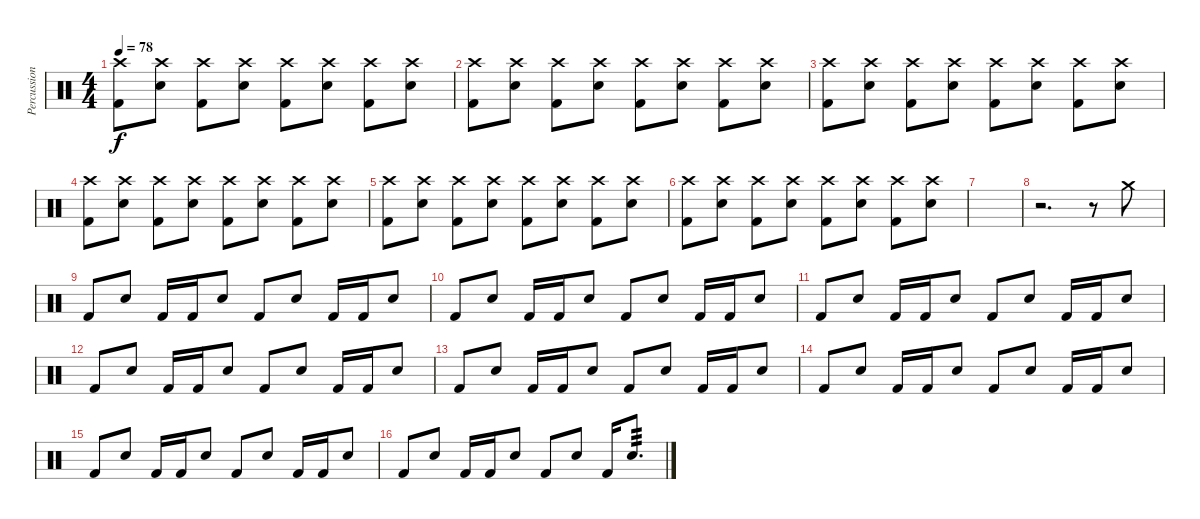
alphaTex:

\track ("Percussioni" "Percussion") {instrument percussion}
\staff {score}
\articulation defaults
\ts (4 4)
\tempo 78
\clef neutral
\ks c
("Crash high (hit)" "Kick (hit) 2").8{dy f} ("Crash high (hit)" "Snare (hit) 2").8 ("Crash high (hit)" "Kick (hit) 2").8 ("Crash high (hit)" "Snare (hit) 2").8 ("Crash high (hit)" "Kick (hit) 2").8 ("Crash high (hit)" "Snare (hit) 2").8 ("Crash high (hit)" "Kick (hit) 2").8 ("Crash high (hit)" "Snare (hit) 2").8 |
("Crash high (hit)" "Kick (hit) 2").8 ("Crash high (hit)" "Snare (hit) 2").8 ("Crash high (hit)" "Kick (hit) 2").8 ("Crash high (hit)" "Snare (hit) 2").8 ("Crash high (hit)" "Kick (hit) 2").8 ("Crash high (hit)" "Snare (hit) 2").8 ("Crash high (hit)" "Kick (hit) 2").8 ("Crash high (hit)" "Snare (hit) 2").8 |
("Crash high (hit)" "Kick (hit) 2").8 ("Crash high (hit)" "Snare (hit) 2").8 ("Crash high (hit)" "Kick (hit) 2").8 ("Crash high (hit)" "Snare (hit) 2").8 ("Crash high (hit)" "Kick (hit) 2").8 ("Crash high (hit)" "Snare (hit) 2").8 ("Crash high (hit)" "Kick (hit) 2").8 ("Crash high (hit)" "Snare (hit) 2").8 |
("Crash high (hit)" "Kick (hit) 2").8 ("Crash high (hit)" "Snare (hit) 2").8 ("Crash high (hit)" "Kick (hit) 2").8 ("Crash high (hit)" "Snare (hit) 2").8 ("Crash high (hit)" "Kick (hit) 2").8 ("Crash high (hit)" "Snare (hit) 2").8 ("Crash high (hit)" "Kick (hit) 2").8 ("Crash high (hit)" "Snare (hit) 2").8 |
("Crash high (hit)" "Kick (hit) 2").8 ("Crash high (hit)" "Snare (hit) 2").8 ("Crash high (hit)" "Kick (hit) 2").8 ("Crash high (hit)" "Snare (hit) 2").8 ("Crash high (hit)" "Kick (hit) 2").8 ("Crash high (hit)" "Snare (hit) 2").8 ("Crash high (hit)" "Kick (hit) 2").8 ("Crash high (hit)" "Snare (hit) 2").8 |
("Crash high (hit)" "Kick (hit) 2").8 ("Crash high (hit)" "Snare (hit) 2").8 ("Crash high (hit)" "Kick (hit) 2").8 ("Crash high (hit)" "Snare (hit) 2").8 ("Crash high (hit)" "Kick (hit) 2").8 ("Crash high (hit)" "Snare (hit) 2").8 ("Crash high (hit)" "Kick (hit) 2").8 ("Crash high (hit)" "Snare (hit) 2").8 |
|
r.2{d} r.8 "Crash medium (hit)".8 |
"Kick (hit) 2".8 "Snare (hit) 2".8 "Kick (hit) 2".16 "Kick (hit) 2".16 "Snare (hit) 2".8 "Kick (hit) 2".8 "Snare (hit) 2".8 "Kick (hit) 2".16 "Kick (hit) 2".16 "Snare (hit) 2".8 |
"Kick (hit) 2".8 "Snare (hit) 2".8 "Kick (hit) 2".16 "Kick (hit) 2".16 "Snare (hit) 2".8 "Kick (hit) 2".8 "Snare (hit) 2".8 "Kick (hit) 2".16 "Kick (hit) 2".16 "Snare (hit) 2".8 |
"Kick (hit) 2".8 "Snare (hit) 2".8 "Kick (hit) 2".16 "Kick (hit) 2".16 "Snare (hit) 2".8 "Kick (hit) 2".8 "Snare (hit) 2".8 "Kick (hit) 2".16 "Kick (hit) 2".16 "Snare (hit) 2".8 |
"Kick (hit) 2".8 "Snare (hit) 2".8 "Kick (hit) 2".16 "Kick (hit) 2".16 "Snare (hit) 2".8 "Kick (hit) 2".8 "Snare (hit) 2".8 "Kick (hit) 2".16 "Kick (hit) 2".16 "Snare (hit) 2".8 |
"Kick (hit) 2".8 "Snare (hit) 2".8 "Kick (hit) 2".16 "Kick (hit) 2".16 "Snare (hit) 2".8 "Kick (hit) 2".8 "Snare (hit) 2".8 "Kick (hit) 2".16 "Kick (hit) 2".16 "Snare (hit) 2".8 |
"Kick (hit) 2".8 "Snare (hit) 2".8 "Kick (hit) 2".16 "Kick (hit) 2".16 "Snare (hit) 2".8 "Kick (hit) 2".8 "Snare (hit) 2".8 "Kick (hit) 2".16 "Kick (hit) 2".16 "Snare (hit) 2".8 |
"Kick (hit) 2".8 "Snare (hit) 2".8 "Kick (hit) 2".16 "Kick (hit) 2".16 "Snare (hit) 2".8 "Kick (hit) 2".8 "Snare (hit) 2".8 "Kick (hit) 2".16 "Kick (hit) 2".16 "Snare (hit) 2".8 |
"Kick (hit) 2".8 "Snare (hit) 2".8 "Kick (hit) 2".16 "Kick (hit) 2".16 "Snare (hit) 2".8 "Kick (hit) 2".8 "Snare (hit) 2".8 "Kick (hit) 2".16 "Snare (hit) 2".8{d tp 3}
